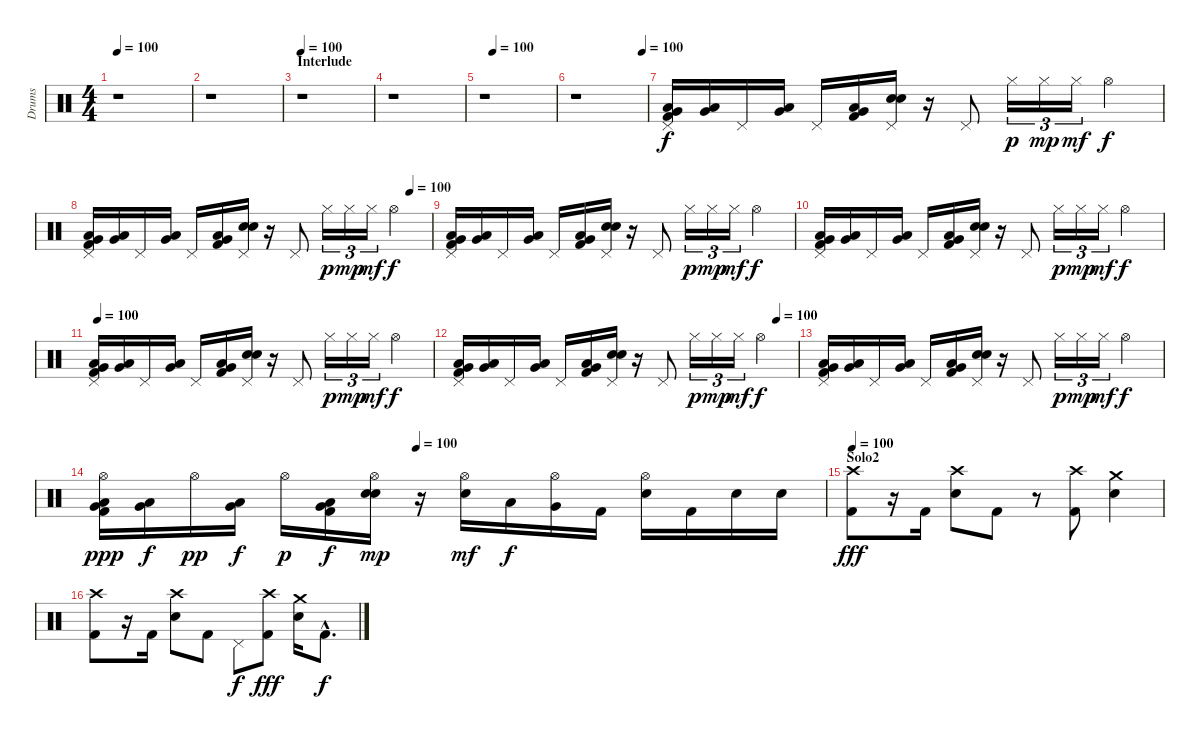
\track ("Drums" "Drums") {instrument percussion}
\staff {score}
\articulation defaults
\ts (4 4)
\tempo 100
\clef neutral
\ks c
r.1{dy f} |
r.1 |
\section ("" "Interlude")
\tempo 100
r.1 |
r.1 |
\tempo (100 0.125)
r.1 |
\tempo (100 0.9375)
r.1 |
("Pedal Hi-Hat (hit)" "Very Low Tom (hit)" "Low Floor Tom (hit)" "Kick (hit) 2").16 ("Very Low Tom (hit)" "Low Floor Tom (hit)").16 "Pedal Hi-Hat (hit)".16 ("Very Low Tom (hit)" "Low Floor Tom (hit)").16 "Pedal Hi-Hat (hit)".16 ("Very Low Tom (hit)" "Low Floor Tom (hit)" "Kick (hit) 2").16 ("Pedal Hi-Hat (hit)" "Snare (hit) 2" "Snare (hit) 2").16 r.16 "Pedal Hi-Hat (hit)".8 "Hi-Hat (closed)".16{tu (3 2) dy p} "Hi-Hat (closed)".16{tu (3 2) dy mp} "Hi-Hat (closed)".16{tu (3 2) dy mf} "Hi-Hat (open)".4{dy f} |
\tempo (100 0.9375)
("Pedal Hi-Hat (hit)" "Very Low Tom (hit)" "Low Floor Tom (hit)" "Kick (hit) 2").16 ("Very Low Tom (hit)" "Low Floor Tom (hit)").16 "Pedal Hi-Hat (hit)".16 ("Very Low Tom (hit)" "Low Floor Tom (hit)").16 "Pedal Hi-Hat (hit)".16 ("Very Low Tom (hit)" "Low Floor Tom (hit)" "Kick (hit) 2").16 ("Pedal Hi-Hat (hit)" "Snare (hit) 2" "Snare (hit) 2").16 r.16 "Pedal Hi-Hat (hit)".8 "Hi-Hat (closed)".16{tu (3 2) dy p} "Hi-Hat (closed)".16{tu (3 2) dy mp} "Hi-Hat (closed)".16{tu (3 2) dy mf} "Hi-Hat (open)".4{dy f} |
("Pedal Hi-Hat (hit)" "Very Low Tom (hit)" "Low Floor Tom (hit)" "Kick (hit) 2").16 ("Very Low Tom (hit)" "Low Floor Tom (hit)").16 "Pedal Hi-Hat (hit)".16 ("Very Low Tom (hit)" "Low Floor Tom (hit)").16 "Pedal Hi-Hat (hit)".16 ("Very Low Tom (hit)" "Low Floor Tom (hit)" "Kick (hit) 2").16 ("Pedal Hi-Hat (hit)" "Snare (hit) 2" "Snare (hit) 2").16 r.16 "Pedal Hi-Hat (hit)".8 "Hi-Hat (closed)".16{tu (3 2) dy p} "Hi-Hat (closed)".16{tu (3 2) dy mp} "Hi-Hat (closed)".16{tu (3 2) dy mf} "Hi-Hat (open)".4{dy f} |
("Pedal Hi-Hat (hit)" "Very Low Tom (hit)" "Low Floor Tom (hit)" "Kick (hit) 2").16 ("Very Low Tom (hit)" "Low Floor Tom (hit)").16 "Pedal Hi-Hat (hit)".16 ("Very Low Tom (hit)" "Low Floor Tom (hit)").16 "Pedal Hi-Hat (hit)".16 ("Very Low Tom (hit)" "Low Floor Tom (hit)" "Kick (hit) 2").16 ("Pedal Hi-Hat (hit)" "Snare (hit) 2" "Snare (hit) 2").16 r.16 "Pedal Hi-Hat (hit)".8 "Hi-Hat (closed)".16{tu (3 2) dy p} "Hi-Hat (closed)".16{tu (3 2) dy mp} "Hi-Hat (closed)".16{tu (3 2) dy mf} "Hi-Hat (open)".4{dy f} |
\tempo 100
("Pedal Hi-Hat (hit)" "Very Low Tom (hit)" "Low Floor Tom (hit)" "Kick (hit) 2").16 ("Very Low Tom (hit)" "Low Floor Tom (hit)").16 "Pedal Hi-Hat (hit)".16 ("Very Low Tom (hit)" "Low Floor Tom (hit)").16 "Pedal Hi-Hat (hit)".16 ("Very Low Tom (hit)" "Low Floor Tom (hit)" "Kick (hit) 2").16 ("Pedal Hi-Hat (hit)" "Snare (hit) 2" "Snare (hit) 2").16 r.16 "Pedal Hi-Hat (hit)".8 "Hi-Hat (closed)".16{tu (3 2) dy p} "Hi-Hat (closed)".16{tu (3 2) dy mp} "Hi-Hat (closed)".16{tu (3 2) dy mf} "Hi-Hat (open)".4{dy f} |
\tempo (100 0.9375)
("Pedal Hi-Hat (hit)" "Very Low Tom (hit)" "Low Floor Tom (hit)" "Kick (hit) 2").16 ("Very Low Tom (hit)" "Low Floor Tom (hit)").16 "Pedal Hi-Hat (hit)".16 ("Very Low Tom (hit)" "Low Floor Tom (hit)").16 "Pedal Hi-Hat (hit)".16 ("Very Low Tom (hit)" "Low Floor Tom (hit)" "Kick (hit) 2").16 ("Pedal Hi-Hat (hit)" "Snare (hit) 2" "Snare (hit) 2").16 r.16 "Pedal Hi-Hat (hit)".8 "Hi-Hat (closed)".16{tu (3 2) dy p} "Hi-Hat (closed)".16{tu (3 2) dy mp} "Hi-Hat (closed)".16{tu (3 2) dy mf} "Hi-Hat (open)".4{dy f} |
("Pedal Hi-Hat (hit)" "Very Low Tom (hit)" "Low Floor Tom (hit)" "Kick (hit) 2").16 ("Very Low Tom (hit)" "Low Floor Tom (hit)").16 "Pedal Hi-Hat (hit)".16 ("Very Low Tom (hit)" "Low Floor Tom (hit)").16 "Pedal Hi-Hat (hit)".16 ("Very Low Tom (hit)" "Low Floor Tom (hit)" "Kick (hit) 2").16 ("Pedal Hi-Hat (hit)" "Snare (hit) 2" "Snare (hit) 2").16 r.16 "Pedal Hi-Hat (hit)".8 "Hi-Hat (closed)".16{tu (3 2) dy p} "Hi-Hat (closed)".16{tu (3 2) dy mp} "Hi-Hat (closed)".16{tu (3 2) dy mf} "Hi-Hat (open)".4{dy f} |
\tempo (100 0.4375)
("Hi-Hat (open)" "Very Low Tom (hit)" "Low Floor Tom (hit)" "Kick (hit) 2").16{dy ppp} ("Very Low Tom (hit)" "Low Floor Tom (hit)").16{dy f} "Hi-Hat (open)".16{dy pp} ("Very Low Tom (hit)" "Low Floor Tom (hit)").16{dy f} "Hi-Hat (open)".16{dy p} ("Very Low Tom (hit)" "Low Floor Tom (hit)" "Kick (hit) 2").16{dy f} ("Hi-Hat (open)" "Snare (hit) 2" "Snare (hit) 2").16{dy mp} r.16 ("Hi-Hat (open)" "Snare (hit) 2").16{dy mf} "Low Tom (hit)".16{dy f} ("Hi-Hat (open)" "Very Low Tom (hit)").16 "Kick (hit) 2".16 ("Hi-Hat (open)" "Snare (hit) 2").16 "Kick (hit) 2".16 "Snare (hit) 2".16 "Snare (hit) 2".16 |
\section ("" "Solo2")
\tempo 100
("Crash high (hit)" "Kick (hit) 2").8{dy fff} r.16 "Kick (hit) 2".16 ("Crash high (hit)" "Electric Snare (hit)").8 "Kick (hit) 2".8 r.8 ("Crash high (hit)" "Kick (hit) 2").8 ("Crash medium (hit)" "Electric Snare (hit)").4 |
("Crash high (hit)" "Kick (hit) 2").8 r.16 "Kick (hit) 2".16 ("Crash high (hit)" "Electric Snare (hit)").8 "Kick (hit) 2".8 "Pedal Hi-Hat (hit)".8{dy f} ("Crash high (hit)" "Kick (hit) 2").8{dy fff} ("Crash medium (hit)" "Electric Snare (hit)").16 "Kick (hit) 2"{hac}.8{d dy f}
